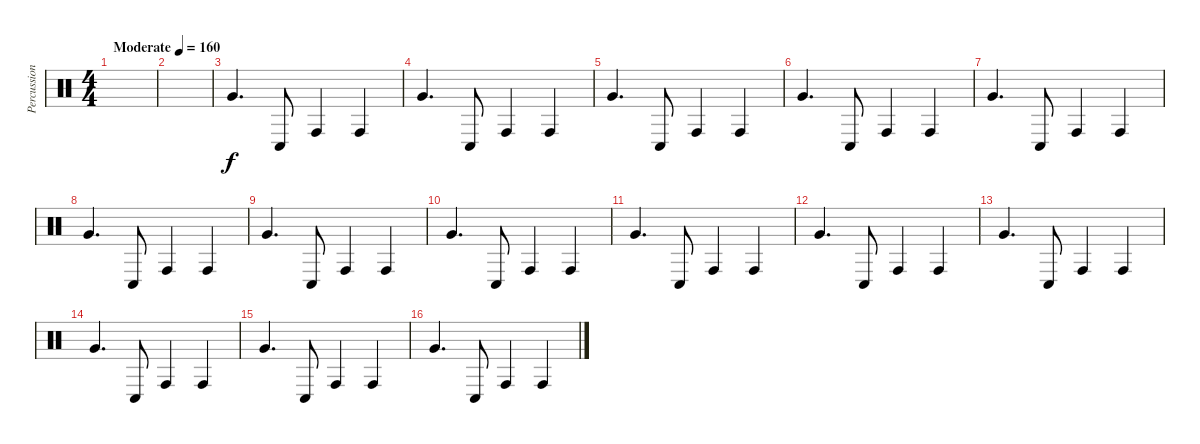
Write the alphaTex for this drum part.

\track ("Percussion 1" "Percussion") {instrument percussion}
\staff {score}
\articulation defaults
\ts (4 4)
\tempo (160 "Moderate")
\clef neutral
\ks c
|
|
"Very Low Tom (hit)".4{d} "Conga low (hit)".8 "Conga high (hit)".4 "Conga high (hit)".4 |
"Very Low Tom (hit)".4{d} "Conga low (hit)".8 "Conga high (hit)".4 "Conga high (hit)".4 |
"Very Low Tom (hit)".4{d} "Conga low (hit)".8 "Conga high (hit)".4 "Conga high (hit)".4 |
"Very Low Tom (hit)".4{d} "Conga low (hit)".8 "Conga high (hit)".4 "Conga high (hit)".4 |
"Very Low Tom (hit)".4{d} "Conga low (hit)".8 "Conga high (hit)".4 "Conga high (hit)".4 |
"Very Low Tom (hit)".4{d} "Conga low (hit)".8 "Conga high (hit)".4 "Conga high (hit)".4 |
"Very Low Tom (hit)".4{d} "Conga low (hit)".8 "Conga high (hit)".4 "Conga high (hit)".4 |
"Very Low Tom (hit)".4{d} "Conga low (hit)".8 "Conga high (hit)".4 "Conga high (hit)".4 |
"Very Low Tom (hit)".4{d} "Conga low (hit)".8 "Conga high (hit)".4 "Conga high (hit)".4 |
"Very Low Tom (hit)".4{d} "Conga low (hit)".8 "Conga high (hit)".4 "Conga high (hit)".4 |
"Very Low Tom (hit)".4{d} "Conga low (hit)".8 "Conga high (hit)".4 "Conga high (hit)".4 |
"Very Low Tom (hit)".4{d} "Conga low (hit)".8 "Conga high (hit)".4 "Conga high (hit)".4 |
"Very Low Tom (hit)".4{d} "Conga low (hit)".8 "Conga high (hit)".4 "Conga high (hit)".4 |
"Very Low Tom (hit)".4{d} "Conga low (hit)".8 "Conga high (hit)".4 "Conga high (hit)".4
